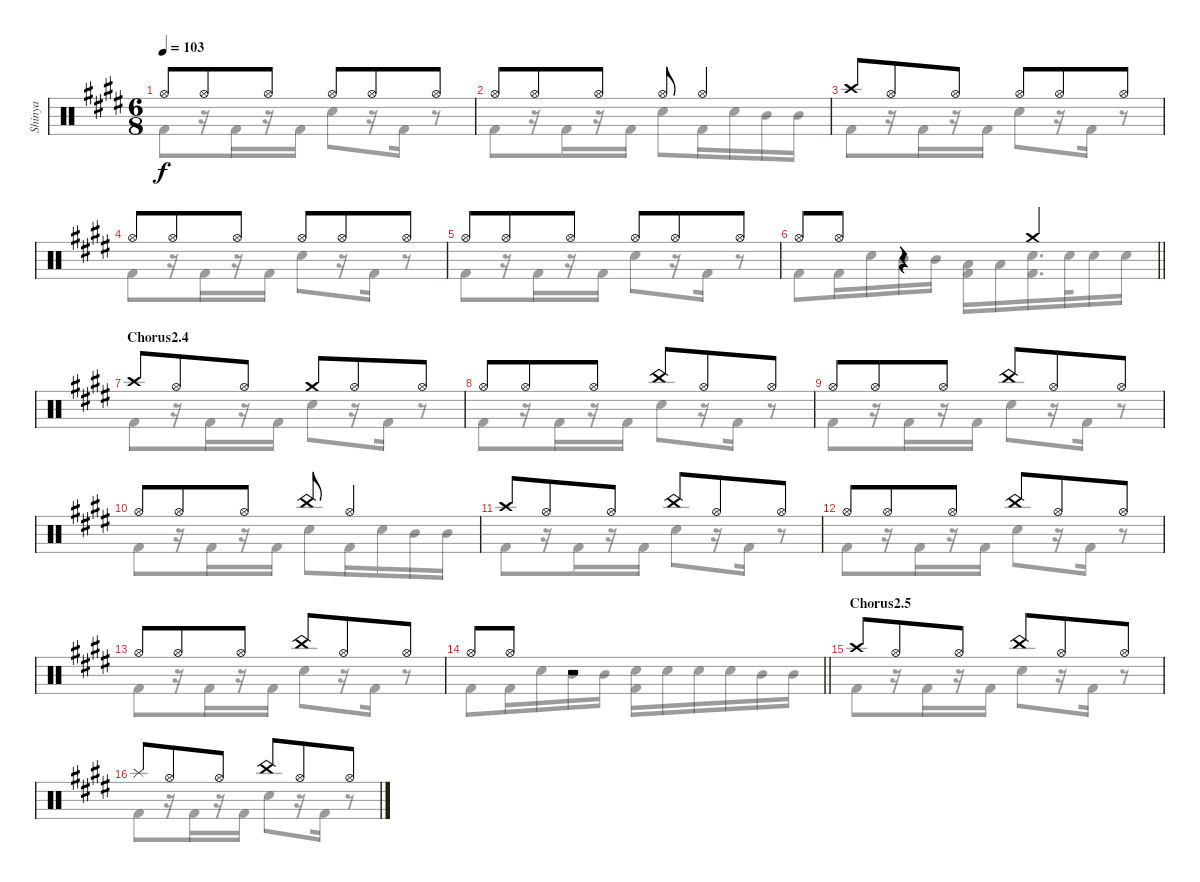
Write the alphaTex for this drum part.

\track ("Shinya" "Shinya") {instrument percussion}
\staff {score}
\articulation defaults
\voice
\ts (6 8)
\tempo 103
\clef neutral
\ks c#minor "Hi-Hat (open)".8{dy f} "Hi-Hat (open)".8 "Hi-Hat (open)".8 "Hi-Hat (open)".8 "Hi-Hat (open)".8 "Hi-Hat (open)".8
|
"Hi-Hat (open)".8 "Hi-Hat (open)".8 "Hi-Hat (open)".8 "Hi-Hat (open)".8 "Hi-Hat (open)".4 |
"Crash high (hit)".8 "Hi-Hat (open)".8 "Hi-Hat (open)".8 "Hi-Hat (open)".8 "Hi-Hat (open)".8 "Hi-Hat (open)".8 |
"Hi-Hat (open)".8 "Hi-Hat (open)".8 "Hi-Hat (open)".8 "Hi-Hat (open)".8 "Hi-Hat (open)".8 "Hi-Hat (open)".8 |
"Hi-Hat (open)".8 "Hi-Hat (open)".8 "Hi-Hat (open)".8 "Hi-Hat (open)".8 "Hi-Hat (open)".8 "Hi-Hat (open)".8 |
\barLineRight lightlight "Hi-Hat (open)".8 "Hi-Hat (open)".8
r.4 "Crash medium (hit)".4 |
\section ("" "Chorus2.4")
"Crash high (hit)".8 "Hi-Hat (open)".8 "Hi-Hat (open)".8 "Crash medium (hit)".8 "Hi-Hat (open)".8 "Hi-Hat (open)".8 |
"Hi-Hat (open)".8 "Hi-Hat (open)".8 "Hi-Hat (open)".8 "China (hit)".8 "Hi-Hat (open)".8 "Hi-Hat (open)".8 |
"Hi-Hat (open)".8 "Hi-Hat (open)".8 "Hi-Hat (open)".8 "China (hit)".8 "Hi-Hat (open)".8 "Hi-Hat (open)".8 |
"Hi-Hat (open)".8 "Hi-Hat (open)".8 "Hi-Hat (open)".8 "China (hit)".8 "Hi-Hat (open)".4 |
"Crash high (hit)".8 "Hi-Hat (open)".8 "Hi-Hat (open)".8 "China (hit)".8 "Hi-Hat (open)".8 "Hi-Hat (open)".8 |
"Hi-Hat (open)".8 "Hi-Hat (open)".8 "Hi-Hat (open)".8 "China (hit)".8 "Hi-Hat (open)".8 "Hi-Hat (open)".8 |
"Hi-Hat (open)".8 "Hi-Hat (open)".8 "Hi-Hat (open)".8 "China (hit)".8 "Hi-Hat (open)".8 "Hi-Hat (open)".8 |
\barLineRight lightlight "Hi-Hat (open)".8 "Hi-Hat (open)".8
r.2 |
\section ("" "Chorus2.5")
"Crash high (hit)".8 "Hi-Hat (open)".8 "Hi-Hat (open)".8 "China (hit)".8 "Hi-Hat (open)".8 "Hi-Hat (open)".8 |
"Splash (hit)".8 "Hi-Hat (open)".8 "Hi-Hat (open)".8 "China (hit)".8 "Hi-Hat (open)".8 "Hi-Hat (open)".8
\voice
\clef neutral
\ottava regular
\simile none
\ks c#minor "Kick (hit) 2".8{dy f}
r.16 "Kick (hit) 2".16 r.16 "Kick (hit) 2".16 "Snare (hit) 2".8 r.16 "Kick (hit) 2".16 r.8 |
"Kick (hit) 2".8 r.16 "Kick (hit) 2".16 r.16 "Kick (hit) 2".16 "Snare (hit) 2".8 "Kick (hit) 2".16 "Snare (hit) 2".16 "Mid Tom (hit)".16 "Mid Tom (hit)".16 |
"Kick (hit) 2".8 r.16 "Kick (hit) 2".16 r.16 "Kick (hit) 2".16 "Snare (hit) 2".8 r.16 "Kick (hit) 2".16 r.8 |
"Kick (hit) 2".8 r.16 "Kick (hit) 2".16 r.16 "Kick (hit) 2".16 "Snare (hit) 2".8 r.16 "Kick (hit) 2".16 r.8 |
"Kick (hit) 2".8 r.16 "Kick (hit) 2".16 r.16 "Kick (hit) 2".16 "Snare (hit) 2".8 r.16 "Kick (hit) 2".16 r.8 |
\barLineRight lightlight "Kick (hit) 2".8 "Kick (hit) 2".16 "Snare (hit) 2".16 "Mid Tom (hit)".16 "Mid Tom (hit)".16
("Low Tom (hit)" "Kick (hit) 2").16 "Low Tom (hit)".16 ("Snare (hit) 2" "Kick (hit) 2").16{d} "Snare (hit) 2".32 "Snare (hit) 2".16 "Snare (hit) 2".16 |
"Kick (hit) 2".8 r.16 "Kick (hit) 2".16 r.16 "Kick (hit) 2".16 "Snare (hit) 2".8 r.16 "Kick (hit) 2".16 r.8 |
"Kick (hit) 2".8 r.16 "Kick (hit) 2".16 r.16 "Kick (hit) 2".16 "Snare (hit) 2".8 r.16 "Kick (hit) 2".16 r.8 |
"Kick (hit) 2".8 r.16 "Kick (hit) 2".16 r.16 "Kick (hit) 2".16 "Snare (hit) 2".8 r.16 "Kick (hit) 2".16 r.8 |
"Kick (hit) 2".8 r.16 "Kick (hit) 2".16 r.16 "Kick (hit) 2".16 "Snare (hit) 2".8 "Kick (hit) 2".16 "Snare (hit) 2".16 "Mid Tom (hit)".16 "Mid Tom (hit)".16 |
"Kick (hit) 2".8 r.16 "Kick (hit) 2".16 r.16 "Kick (hit) 2".16 "Snare (hit) 2".8 r.16 "Kick (hit) 2".16 r.8 |
"Kick (hit) 2".8 r.16 "Kick (hit) 2".16 r.16 "Kick (hit) 2".16 "Snare (hit) 2".8 r.16 "Kick (hit) 2".16 r.8 |
"Kick (hit) 2".8 r.16 "Kick (hit) 2".16 r.16 "Kick (hit) 2".16 "Snare (hit) 2".8 r.16 "Kick (hit) 2".16 r.8 |
\barLineRight lightlight "Kick (hit) 2".8 "Kick (hit) 2".16 "Snare (hit) 2".16 "Mid Tom (hit)".16 "Mid Tom (hit)".16
("Snare (hit) 2" "Kick (hit) 2").16 "Snare (hit) 2".16 "Snare (hit) 2".16 "Snare (hit) 2".16 "Mid Tom (hit)".16 "Mid Tom (hit)".16 |
"Kick (hit) 2".8 r.16 "Kick (hit) 2".16 r.16 "Kick (hit) 2".16 "Snare (hit) 2".8 r.16 "Kick (hit) 2".16 r.8 |
"Kick (hit) 2".8 r.16 "Kick (hit) 2".16 r.16 "Kick (hit) 2".16 "Snare (hit) 2".8 r.16 "Kick (hit) 2".16 r.8
